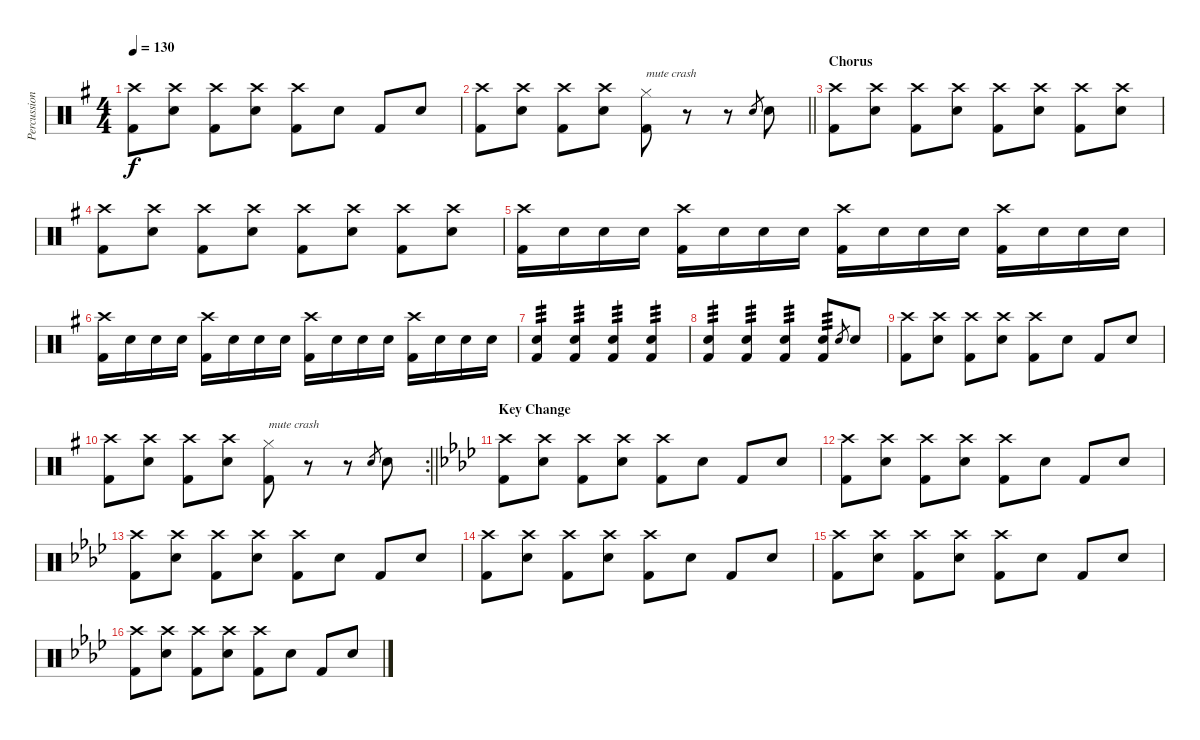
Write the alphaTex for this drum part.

\track ("Percussion" "Percussion") {instrument percussion}
\staff {score}
\articulation defaults
\ts (4 4)
\tempo 130
\clef neutral
\ks g
("Crash high (hit)" "Kick (hit) 2").8{dy f} ("Crash high (hit)" "Electric Snare (hit)").8 ("Crash high (hit)" "Kick (hit) 2").8 ("Crash high (hit)" "Electric Snare (hit)").8 ("Crash high (hit)" "Kick (hit) 2").8 "Electric Snare (hit)".8 "Kick (hit) 2".8 "Electric Snare (hit)".8 |
\barLineRight lightlight
("Crash high (hit)" "Kick (hit) 2").8 ("Crash high (hit)" "Electric Snare (hit)").8 ("Crash high (hit)" "Kick (hit) 2").8 ("Crash high (hit)" "Electric Snare (hit)").8 ("Hi-Hat (closed)" "Kick (hit) 2").8{txt "mute crash"} r.8 r.8 "Electric Snare (hit)".8{gr} "Electric Snare (hit)".8 |
\section ("" "Chorus")
("Crash high (hit)" "Kick (hit) 2").8 ("Crash high (hit)" "Electric Snare (hit)").8 ("Crash high (hit)" "Kick (hit) 2").8 ("Crash high (hit)" "Electric Snare (hit)").8 ("Crash high (hit)" "Kick (hit) 2").8 ("Crash high (hit)" "Electric Snare (hit)").8 ("Crash high (hit)" "Kick (hit) 2").8 ("Crash high (hit)" "Electric Snare (hit)").8 |
("Crash high (hit)" "Kick (hit) 2").8 ("Crash high (hit)" "Electric Snare (hit)").8 ("Crash high (hit)" "Kick (hit) 2").8 ("Crash high (hit)" "Electric Snare (hit)").8 ("Crash high (hit)" "Kick (hit) 2").8 ("Crash high (hit)" "Electric Snare (hit)").8 ("Crash high (hit)" "Kick (hit) 2").8 ("Crash high (hit)" "Electric Snare (hit)").8 |
("Crash high (hit)" "Kick (hit) 2").16 "Electric Snare (hit)".16 "Electric Snare (hit)".16 "Electric Snare (hit)".16 ("Crash high (hit)" "Kick (hit) 2").16 "Electric Snare (hit)".16 "Electric Snare (hit)".16 "Electric Snare (hit)".16 ("Crash high (hit)" "Kick (hit) 2").16 "Electric Snare (hit)".16 "Electric Snare (hit)".16 "Electric Snare (hit)".16 ("Crash high (hit)" "Kick (hit) 2").16 "Electric Snare (hit)".16 "Electric Snare (hit)".16 "Electric Snare (hit)".16 |
("Crash high (hit)" "Kick (hit) 2").16 "Electric Snare (hit)".16 "Electric Snare (hit)".16 "Electric Snare (hit)".16 ("Crash high (hit)" "Kick (hit) 2").16 "Electric Snare (hit)".16 "Electric Snare (hit)".16 "Electric Snare (hit)".16 ("Crash high (hit)" "Kick (hit) 2").16 "Electric Snare (hit)".16 "Electric Snare (hit)".16 "Electric Snare (hit)".16 ("Crash high (hit)" "Kick (hit) 2").16 "Electric Snare (hit)".16 "Electric Snare (hit)".16 "Electric Snare (hit)".16 |
("Electric Snare (hit)" "Kick (hit) 2").4{tp 3} ("Electric Snare (hit)" "Kick (hit) 2").4{tp 3} ("Electric Snare (hit)" "Kick (hit) 2").4{tp 3} ("Electric Snare (hit)" "Kick (hit) 2").4{tp 3} |
("Electric Snare (hit)" "Kick (hit) 2").4{tp 3} ("Electric Snare (hit)" "Kick (hit) 2").4{tp 3} ("Electric Snare (hit)" "Kick (hit) 2").4{tp 3} ("Electric Snare (hit)" "Kick (hit) 2").8{tp 3} "Electric Snare (hit)".8{gr} "Electric Snare (hit)".8 |
("Crash high (hit)" "Kick (hit) 2").8 ("Crash high (hit)" "Electric Snare (hit)").8 ("Crash high (hit)" "Kick (hit) 2").8 ("Crash high (hit)" "Electric Snare (hit)").8 ("Crash high (hit)" "Kick (hit) 2").8 "Electric Snare (hit)".8 "Kick (hit) 2".8 "Electric Snare (hit)".8 |
\rc 2
\barLineRight lightlight
("Crash high (hit)" "Kick (hit) 2").8 ("Crash high (hit)" "Electric Snare (hit)").8 ("Crash high (hit)" "Kick (hit) 2").8 ("Crash high (hit)" "Electric Snare (hit)").8 ("Hi-Hat (closed)" "Kick (hit) 2").8{txt "mute crash"} r.8 r.8 "Electric Snare (hit)".8{gr} "Electric Snare (hit)".8 |
\section ("" "Key Change")
\ks ab
("Crash high (hit)" "Kick (hit) 2").8 ("Crash high (hit)" "Electric Snare (hit)").8 ("Crash high (hit)" "Kick (hit) 2").8 ("Crash high (hit)" "Electric Snare (hit)").8 ("Crash high (hit)" "Kick (hit) 2").8 "Electric Snare (hit)".8 "Kick (hit) 2".8 "Electric Snare (hit)".8 |
("Crash high (hit)" "Kick (hit) 2").8 ("Crash high (hit)" "Electric Snare (hit)").8 ("Crash high (hit)" "Kick (hit) 2").8 ("Crash high (hit)" "Electric Snare (hit)").8 ("Crash high (hit)" "Kick (hit) 2").8 "Electric Snare (hit)".8 "Kick (hit) 2".8 "Electric Snare (hit)".8 |
("Crash high (hit)" "Kick (hit) 2").8 ("Crash high (hit)" "Electric Snare (hit)").8 ("Crash high (hit)" "Kick (hit) 2").8 ("Crash high (hit)" "Electric Snare (hit)").8 ("Crash high (hit)" "Kick (hit) 2").8 "Electric Snare (hit)".8 "Kick (hit) 2".8 "Electric Snare (hit)".8 |
("Crash high (hit)" "Kick (hit) 2").8 ("Crash high (hit)" "Electric Snare (hit)").8 ("Crash high (hit)" "Kick (hit) 2").8 ("Crash high (hit)" "Electric Snare (hit)").8 ("Crash high (hit)" "Kick (hit) 2").8 "Electric Snare (hit)".8 "Kick (hit) 2".8 "Electric Snare (hit)".8 |
("Crash high (hit)" "Kick (hit) 2").8 ("Crash high (hit)" "Electric Snare (hit)").8 ("Crash high (hit)" "Kick (hit) 2").8 ("Crash high (hit)" "Electric Snare (hit)").8 ("Crash high (hit)" "Kick (hit) 2").8 "Electric Snare (hit)".8 "Kick (hit) 2".8 "Electric Snare (hit)".8 |
("Crash high (hit)" "Kick (hit) 2").8 ("Crash high (hit)" "Electric Snare (hit)").8 ("Crash high (hit)" "Kick (hit) 2").8 ("Crash high (hit)" "Electric Snare (hit)").8 ("Crash high (hit)" "Kick (hit) 2").8 "Electric Snare (hit)".8 "Kick (hit) 2".8 "Electric Snare (hit)".8
